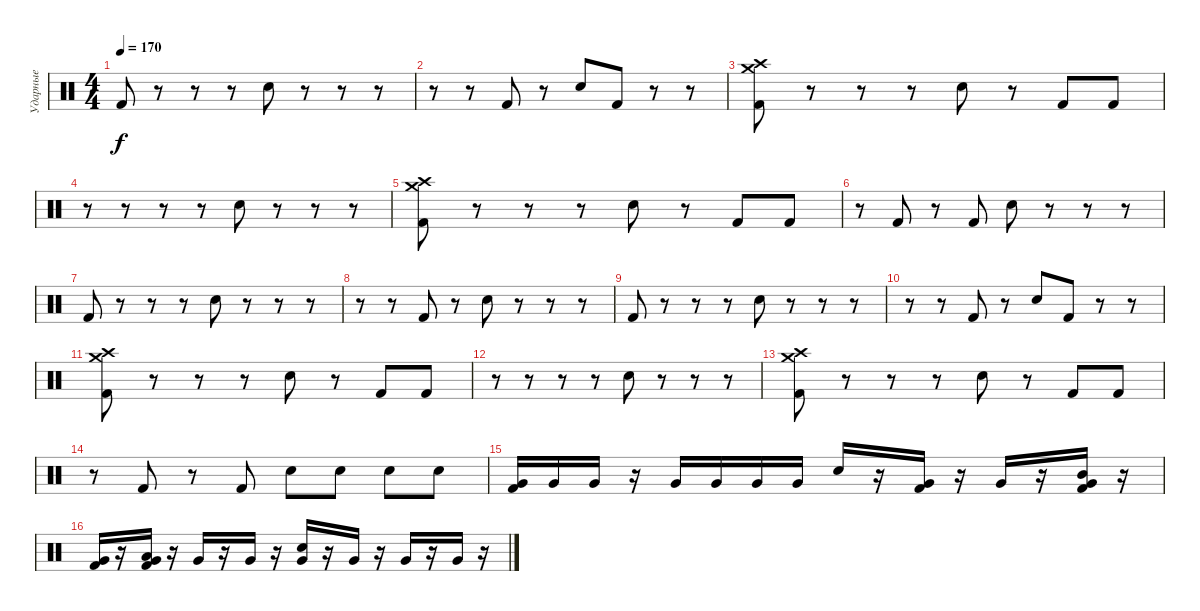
\track ("Ударные" "Ударные") {instrument percussion}
\staff
\articulation defaults
\ts (4 4)
\tempo 170
\clef neutral
\ks c "Kick (hit) 2".8{dy f}
r.8 r.8 r.8 "Electric Snare (hit)".8 r.8 r.8 r.8 |
r.8 r.8 "Kick (hit) 2".8 r.8 "Electric Snare (hit)".8 "Kick (hit) 2".8 r.8 r.8 |
("Crash high (hit)" "Crash medium (hit)" "Kick (hit) 2").8 r.8 r.8 r.8 "Electric Snare (hit)".8 r.8 "Kick (hit) 2".8 "Kick (hit) 2".8 |
r.8 r.8 r.8 r.8 "Electric Snare (hit)".8 r.8 r.8 r.8 |
("Crash high (hit)" "Crash medium (hit)" "Kick (hit) 2").8 r.8 r.8 r.8 "Electric Snare (hit)".8 r.8 "Kick (hit) 2".8 "Kick (hit) 2".8 |
r.8 "Kick (hit) 2".8 r.8 "Kick (hit) 2".8 "Electric Snare (hit)".8 r.8 r.8 r.8 |
"Kick (hit) 2".8 r.8 r.8 r.8 "Electric Snare (hit)".8 r.8 r.8 r.8 |
r.8 r.8 "Kick (hit) 2".8 r.8 "Electric Snare (hit)".8 r.8 r.8 r.8 |
"Kick (hit) 2".8 r.8 r.8 r.8 "Electric Snare (hit)".8 r.8 r.8 r.8 |
r.8 r.8 "Kick (hit) 2".8 r.8 "Electric Snare (hit)".8 "Kick (hit) 2".8 r.8 r.8 |
("Crash high (hit)" "Crash medium (hit)" "Kick (hit) 2").8 r.8 r.8 r.8 "Electric Snare (hit)".8 r.8 "Kick (hit) 2".8 "Kick (hit) 2".8 |
r.8 r.8 r.8 r.8 "Electric Snare (hit)".8 r.8 r.8 r.8 |
("Crash high (hit)" "Crash medium (hit)" "Kick (hit) 2").8 r.8 r.8 r.8 "Electric Snare (hit)".8 r.8 "Kick (hit) 2".8 "Kick (hit) 2".8 |
r.8 "Kick (hit) 2".8 r.8 "Kick (hit) 2".8 "Electric Snare (hit)".8 "Electric Snare (hit)".8 "Electric Snare (hit)".8 "Electric Snare (hit)".8 |
("Very Low Tom (hit)" "Kick (hit) 2").16 "Very Low Tom (hit)".16 "Very Low Tom (hit)".16 r.16 "Very Low Tom (hit)".16 "Very Low Tom (hit)".16 "Very Low Tom (hit)".16 "Very Low Tom (hit)".16 "Electric Snare (hit)".16 r.16 ("Very Low Tom (hit)" "Kick (hit) 2").16 r.16 "Very Low Tom (hit)".16 r.16 ("Mid Tom (hit)" "Very Low Tom (hit)" "Kick (hit) 2").16 r.16 |
("Very Low Tom (hit)" "Kick (hit) 2").16 r.16 ("Low Tom (hit)" "Very Low Tom (hit)" "Kick (hit) 2").16 r.16 "Very Low Tom (hit)".16 r.16 "Very Low Tom (hit)".16 r.16 ("Very Low Tom (hit)" "Electric Snare (hit)").16 r.16 "Very Low Tom (hit)".16 r.16 "Very Low Tom (hit)".16 r.16 "Very Low Tom (hit)".16 r.16
